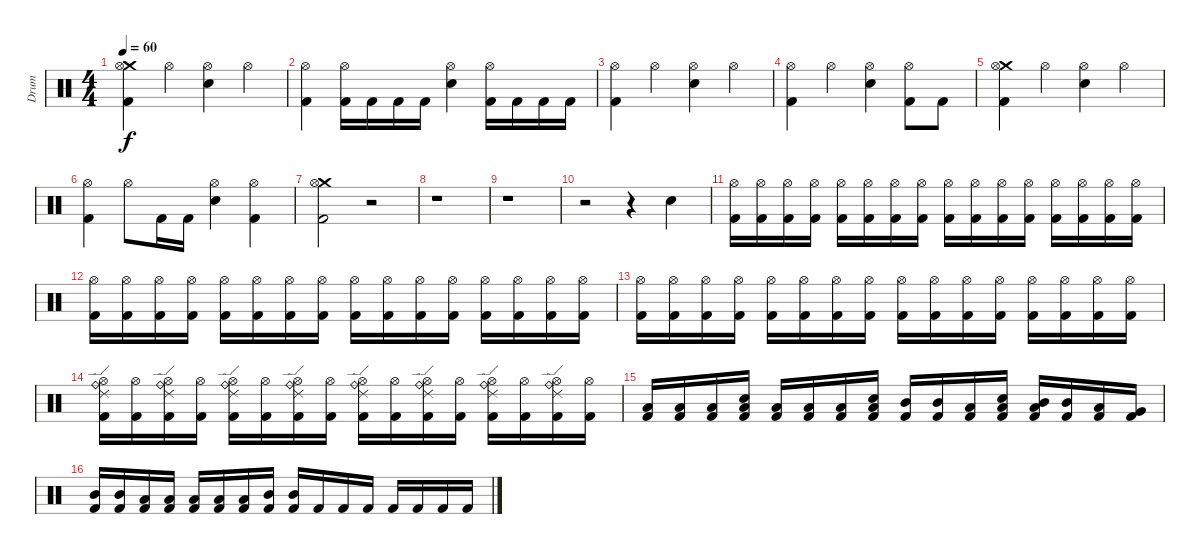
\track ("Drum" "Drum") {instrument percussion}
\staff {score}
\articulation defaults
\ts (4 4)
\tempo 60
\clef neutral
\ks c
("Crash medium (hit)" "Kick (hit) 2" "Hi-Hat (open)").4{dy f} "Hi-Hat (open)".4 ("Electric Snare (hit)" "Hi-Hat (open)").4 "Hi-Hat (open)".4 |
("Kick (hit) 2" "Hi-Hat (open)").4 ("Kick (hit) 2" "Hi-Hat (open)").16 "Kick (hit) 2".16 "Kick (hit) 2".16 "Kick (hit) 2".16 ("Electric Snare (hit)" "Hi-Hat (open)").4 ("Kick (hit) 2" "Hi-Hat (open)").16 "Kick (hit) 2".16 "Kick (hit) 2".16 "Kick (hit) 2".16 |
("Kick (hit) 2" "Hi-Hat (open)").4 "Hi-Hat (open)".4 ("Electric Snare (hit)" "Hi-Hat (open)").4 "Hi-Hat (open)".4 |
("Kick (hit) 2" "Hi-Hat (open)").4 "Hi-Hat (open)".4 ("Electric Snare (hit)" "Hi-Hat (open)").4 ("Kick (hit) 2" "Hi-Hat (open)").8 "Kick (hit) 2".8 |
("Crash medium (hit)" "Kick (hit) 2" "Hi-Hat (open)").4 "Hi-Hat (open)".4 ("Electric Snare (hit)" "Hi-Hat (open)").4 "Hi-Hat (open)".4 |
("Kick (hit) 2" "Hi-Hat (open)").4 "Hi-Hat (open)".8 "Kick (hit) 2".16 "Kick (hit) 2".16 ("Electric Snare (hit)" "Hi-Hat (open)").4 ("Kick (hit) 2" "Hi-Hat (open)").4 |
("Kick (hit) 2" "Crash medium (hit)" "Hi-Hat (open)").2 r.2 |
r.1 |
r.1 |
r.2 r.4 "Electric Snare (hit)".4 |
("Hi-Hat (open)" "Kick (hit) 2").16 ("Hi-Hat (open)" "Kick (hit) 2").16 ("Hi-Hat (open)" "Kick (hit) 2").16 ("Hi-Hat (open)" "Kick (hit) 2").16 ("Hi-Hat (open)" "Kick (hit) 2").16 ("Hi-Hat (open)" "Kick (hit) 2").16 ("Hi-Hat (open)" "Kick (hit) 2").16 ("Hi-Hat (open)" "Kick (hit) 2").16 ("Hi-Hat (open)" "Kick (hit) 2").16 ("Hi-Hat (open)" "Kick (hit) 2").16 ("Hi-Hat (open)" "Kick (hit) 2").16 ("Hi-Hat (open)" "Kick (hit) 2").16 ("Hi-Hat (open)" "Kick (hit) 2").16 ("Hi-Hat (open)" "Kick (hit) 2").16 ("Hi-Hat (open)" "Kick (hit) 2").16 ("Hi-Hat (open)" "Kick (hit) 2").16 |
("Hi-Hat (open)" "Kick (hit) 2").16 ("Hi-Hat (open)" "Kick (hit) 2").16 ("Hi-Hat (open)" "Kick (hit) 2").16 ("Hi-Hat (open)" "Kick (hit) 2").16 ("Hi-Hat (open)" "Kick (hit) 2").16 ("Hi-Hat (open)" "Kick (hit) 2").16 ("Hi-Hat (open)" "Kick (hit) 2").16 ("Hi-Hat (open)" "Kick (hit) 2").16 ("Hi-Hat (open)" "Kick (hit) 2").16 ("Hi-Hat (open)" "Kick (hit) 2").16 ("Hi-Hat (open)" "Kick (hit) 2").16 ("Hi-Hat (open)" "Kick (hit) 2").16 ("Hi-Hat (open)" "Kick (hit) 2").16 ("Hi-Hat (open)" "Kick (hit) 2").16 ("Hi-Hat (open)" "Kick (hit) 2").16 ("Hi-Hat (open)" "Kick (hit) 2").16 |
("Hi-Hat (open)" "Kick (hit) 2").16 ("Hi-Hat (open)" "Kick (hit) 2").16 ("Hi-Hat (open)" "Kick (hit) 2").16 ("Hi-Hat (open)" "Kick (hit) 2").16 ("Hi-Hat (open)" "Kick (hit) 2").16 ("Hi-Hat (open)" "Kick (hit) 2").16 ("Hi-Hat (open)" "Kick (hit) 2").16 ("Hi-Hat (open)" "Kick (hit) 2").16 ("Hi-Hat (open)" "Kick (hit) 2").16 ("Hi-Hat (open)" "Kick (hit) 2").16 ("Hi-Hat (open)" "Kick (hit) 2").16 ("Hi-Hat (open)" "Kick (hit) 2").16 ("Hi-Hat (open)" "Kick (hit) 2").16 ("Hi-Hat (open)" "Kick (hit) 2").16 ("Hi-Hat (open)" "Kick (hit) 2").16 ("Hi-Hat (open)" "Kick (hit) 2").16 |
("Ride (bell)" "Ride (edge) 2" "Hi-Hat (open)" "Kick (hit) 2").16 ("Hi-Hat (open)" "Kick (hit) 2").16 ("Ride (bell)" "Ride (edge) 2" "Hi-Hat (open)" "Kick (hit) 2").16 ("Hi-Hat (open)" "Kick (hit) 2").16 ("Ride (bell)" "Ride (edge) 2" "Hi-Hat (open)" "Kick (hit) 2").16 ("Hi-Hat (open)" "Kick (hit) 2").16 ("Ride (bell)" "Ride (edge) 2" "Hi-Hat (open)" "Kick (hit) 2").16 ("Hi-Hat (open)" "Kick (hit) 2").16 ("Ride (bell)" "Ride (edge) 2" "Hi-Hat (open)" "Kick (hit) 2").16 ("Hi-Hat (open)" "Kick (hit) 2").16 ("Ride (bell)" "Ride (edge) 2" "Hi-Hat (open)" "Kick (hit) 2").16 ("Hi-Hat (open)" "Kick (hit) 2").16 ("Ride (bell)" "Ride (edge) 2" "Hi-Hat (open)" "Kick (hit) 2").16 ("Hi-Hat (open)" "Kick (hit) 2").16 ("Ride (bell)" "Ride (edge) 2" "Hi-Hat (open)" "Kick (hit) 2").16 ("Hi-Hat (open)" "Kick (hit) 2").16 |
("Low Tom (hit)" "Kick (hit) 2").16 ("Low Tom (hit)" "Kick (hit) 2").16 ("Low Tom (hit)" "Kick (hit) 2").16 ("Electric Snare (hit)" "Kick (hit) 2" "Low Tom (hit)").16 ("Low Tom (hit)" "Kick (hit) 2").16 ("Low Tom (hit)" "Kick (hit) 2").16 ("Low Tom (hit)" "Kick (hit) 2").16 ("Electric Snare (hit)" "Kick (hit) 2" "Low Tom (hit)").16 ("Mid Tom (hit)" "Kick (hit) 2").16 ("Mid Tom (hit)" "Kick (hit) 2").16 ("Low Tom (hit)" "Kick (hit) 2").16 ("Electric Snare (hit)" "Kick (hit) 2" "Low Tom (hit)").16 ("Low Tom (hit)" "Kick (hit) 2" "Mid Tom (hit)").16 ("Mid Tom (hit)" "Kick (hit) 2").16 ("Low Tom (hit)" "Kick (hit) 2").16 ("Very Low Tom (hit)" "Kick (hit) 2").16 |
("Mid Tom (hit)" "Kick (hit) 2").16 ("Mid Tom (hit)" "Kick (hit) 2").16 ("Low Tom (hit)" "Kick (hit) 2").16 ("Low Tom (hit)" "Kick (hit) 2").16 ("Low Tom (hit)" "Kick (hit) 2").16 ("Low Tom (hit)" "Kick (hit) 2").16 ("Low Tom (hit)" "Kick (hit) 2").16 ("Mid Tom (hit)" "Kick (hit) 2").16 ("Mid Tom (hit)" "Kick (hit) 2").16 "Kick (hit) 2".16 "Kick (hit) 2".16 "Kick (hit) 2".16 "Kick (hit) 2".16 "Kick (hit) 2".16 "Kick (hit) 2".16 "Kick (hit) 2".16
